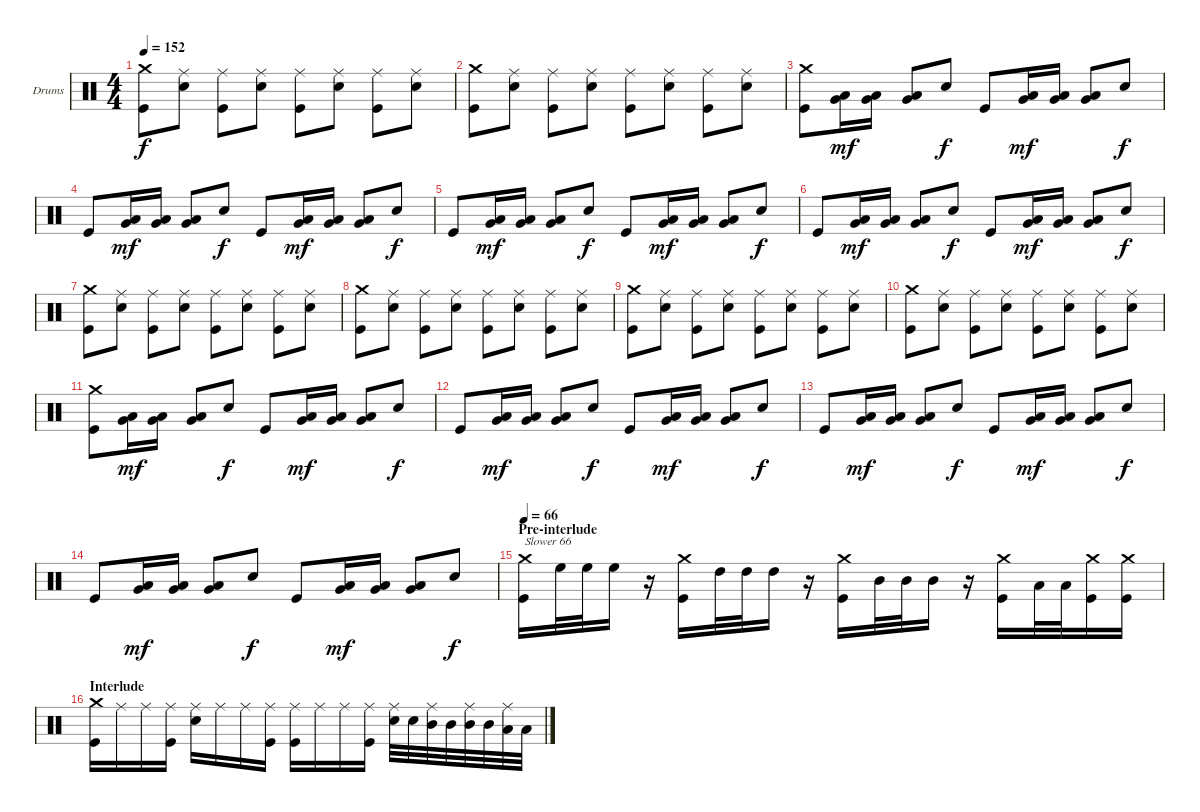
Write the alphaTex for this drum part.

\bracketExtendMode groupsimilarinstruments
\firstSystemTrackNameOrientation horizontal
\otherSystemsTrackNameOrientation horizontal
\track ("Drumkit" "Drums") {instrument percussion}
\staff {score}
\articulation defaults
\ts (4 4)
\tempo 152
\clef neutral
\ks c
("Crash medium (hit)" "Kick (hit)").8{dy f} ("Ride (middle)" "Snare (hit) 2").8 ("Ride (middle)" "Kick (hit)").8 ("Ride (middle)" "Snare (hit) 2").8 ("Ride (middle)" "Kick (hit)").8 ("Ride (middle)" "Snare (hit) 2").8 ("Ride (middle)" "Kick (hit)").8 ("Ride (middle)" "Snare (hit) 2").8 |
("Crash medium (hit)" "Kick (hit)").8 ("Ride (middle)" "Snare (hit) 2").8 ("Ride (middle)" "Kick (hit)").8 ("Ride (middle)" "Snare (hit) 2").8 ("Ride (middle)" "Kick (hit)").8 ("Ride (middle)" "Snare (hit) 2").8 ("Ride (middle)" "Kick (hit)").8 ("Ride (middle)" "Snare (hit) 2").8 |
("Crash medium (hit)" "Kick (hit)").8 ("Very Low Tom (hit)" "Low Tom (hit)").16{dy mf} ("Very Low Tom (hit)" "Low Tom (hit)").16 ("Very Low Tom (hit)" "Low Tom (hit)").8 "Snare (hit) 2".8{dy f} "Kick (hit)".8 ("Very Low Tom (hit)" "Low Tom (hit)").16{dy mf} ("Very Low Tom (hit)" "Low Tom (hit)").16 ("Very Low Tom (hit)" "Low Tom (hit)").8 "Snare (hit) 2".8{dy f} |
"Kick (hit)".8 ("Very Low Tom (hit)" "Low Tom (hit)").16{dy mf} ("Very Low Tom (hit)" "Low Tom (hit)").16 ("Very Low Tom (hit)" "Low Tom (hit)").8 "Snare (hit) 2".8{dy f} "Kick (hit)".8 ("Very Low Tom (hit)" "Low Tom (hit)").16{dy mf} ("Very Low Tom (hit)" "Low Tom (hit)").16 ("Very Low Tom (hit)" "Low Tom (hit)").8 "Snare (hit) 2".8{dy f} |
"Kick (hit)".8 ("Very Low Tom (hit)" "Low Tom (hit)").16{dy mf} ("Very Low Tom (hit)" "Low Tom (hit)").16 ("Very Low Tom (hit)" "Low Tom (hit)").8 "Snare (hit) 2".8{dy f} "Kick (hit)".8 ("Very Low Tom (hit)" "Low Tom (hit)").16{dy mf} ("Very Low Tom (hit)" "Low Tom (hit)").16 ("Very Low Tom (hit)" "Low Tom (hit)").8 "Snare (hit) 2".8{dy f} |
"Kick (hit)".8 ("Very Low Tom (hit)" "Low Tom (hit)").16{dy mf} ("Very Low Tom (hit)" "Low Tom (hit)").16 ("Very Low Tom (hit)" "Low Tom (hit)").8 "Snare (hit) 2".8{dy f} "Kick (hit)".8 ("Very Low Tom (hit)" "Low Tom (hit)").16{dy mf} ("Very Low Tom (hit)" "Low Tom (hit)").16 ("Very Low Tom (hit)" "Low Tom (hit)").8 "Snare (hit) 2".8{dy f} |
("Crash medium (hit)" "Kick (hit)").8 ("Ride (middle)" "Snare (hit) 2").8 ("Ride (middle)" "Kick (hit)").8 ("Ride (middle)" "Snare (hit) 2").8 ("Ride (middle)" "Kick (hit)").8 ("Ride (middle)" "Snare (hit) 2").8 ("Ride (middle)" "Kick (hit)").8 ("Ride (middle)" "Snare (hit) 2").8 |
("Crash medium (hit)" "Kick (hit)").8 ("Ride (middle)" "Snare (hit) 2").8 ("Ride (middle)" "Kick (hit)").8 ("Ride (middle)" "Snare (hit) 2").8 ("Ride (middle)" "Kick (hit)").8 ("Ride (middle)" "Snare (hit) 2").8 ("Ride (middle)" "Kick (hit)").8 ("Ride (middle)" "Snare (hit) 2").8 |
("Crash medium (hit)" "Kick (hit)").8 ("Ride (middle)" "Snare (hit) 2").8 ("Ride (middle)" "Kick (hit)").8 ("Ride (middle)" "Snare (hit) 2").8 ("Ride (middle)" "Kick (hit)").8 ("Ride (middle)" "Snare (hit) 2").8 ("Ride (middle)" "Kick (hit)").8 ("Ride (middle)" "Snare (hit) 2").8 |
("Crash medium (hit)" "Kick (hit)").8 ("Ride (middle)" "Snare (hit) 2").8 ("Ride (middle)" "Kick (hit)").8 ("Ride (middle)" "Snare (hit) 2").8 ("Ride (middle)" "Kick (hit)").8 ("Ride (middle)" "Snare (hit) 2").8 ("Ride (middle)" "Kick (hit)").8 ("Ride (middle)" "Snare (hit) 2").8 |
("Crash medium (hit)" "Kick (hit)").8 ("Very Low Tom (hit)" "Low Tom (hit)").16{dy mf} ("Very Low Tom (hit)" "Low Tom (hit)").16 ("Very Low Tom (hit)" "Low Tom (hit)").8 "Snare (hit) 2".8{dy f} "Kick (hit)".8 ("Very Low Tom (hit)" "Low Tom (hit)").16{dy mf} ("Very Low Tom (hit)" "Low Tom (hit)").16 ("Very Low Tom (hit)" "Low Tom (hit)").8 "Snare (hit) 2".8{dy f} |
"Kick (hit)".8 ("Very Low Tom (hit)" "Low Tom (hit)").16{dy mf} ("Very Low Tom (hit)" "Low Tom (hit)").16 ("Very Low Tom (hit)" "Low Tom (hit)").8 "Snare (hit) 2".8{dy f} "Kick (hit)".8 ("Very Low Tom (hit)" "Low Tom (hit)").16{dy mf} ("Very Low Tom (hit)" "Low Tom (hit)").16 ("Very Low Tom (hit)" "Low Tom (hit)").8 "Snare (hit) 2".8{dy f} |
"Kick (hit)".8 ("Very Low Tom (hit)" "Low Tom (hit)").16{dy mf} ("Very Low Tom (hit)" "Low Tom (hit)").16 ("Very Low Tom (hit)" "Low Tom (hit)").8 "Snare (hit) 2".8{dy f} "Kick (hit)".8 ("Very Low Tom (hit)" "Low Tom (hit)").16{dy mf} ("Very Low Tom (hit)" "Low Tom (hit)").16 ("Very Low Tom (hit)" "Low Tom (hit)").8 "Snare (hit) 2".8{dy f} |
"Kick (hit)".8 ("Very Low Tom (hit)" "Low Tom (hit)").16{dy mf} ("Very Low Tom (hit)" "Low Tom (hit)").16 ("Very Low Tom (hit)" "Low Tom (hit)").8 "Snare (hit) 2".8{dy f} "Kick (hit)".8 ("Very Low Tom (hit)" "Low Tom (hit)").16{dy mf} ("Very Low Tom (hit)" "Low Tom (hit)").16 ("Very Low Tom (hit)" "Low Tom (hit)").8 "Snare (hit) 2".8{dy f} |
\section ("" "Pre-interlude")
\tempo 66
("Crash medium (hit)" "Kick (hit)").16{txt "Slower 66"} "High Floor Tom (hit)".32 "High Floor Tom (hit)".32 "High Floor Tom (hit)".16 r.16 ("Crash medium (hit)" "Kick (hit)").16 "High Tom (hit)".32 "High Tom (hit)".32 "High Tom (hit)".16 r.16 ("Crash medium (hit)" "Kick (hit)").16 "Mid Tom (hit)".32 "Mid Tom (hit)".32 "Mid Tom (hit)".16 r.16 ("Crash medium (hit)" "Kick (hit)").16 "Low Tom (hit)".32 "Low Tom (hit)".32 ("Crash medium (hit)" "Kick (hit)").16 ("Crash medium (hit)" "Kick (hit)").16 |
\section ("" "Interlude")
("Crash medium (hit)" "Kick (hit)").16 "Ride (middle)".16 "Ride (middle)".16 ("Ride (middle)" "Kick (hit)").16 ("Ride (middle)" "Snare (hit) 2").16 "Ride (middle)".16 "Ride (middle)".16 ("Ride (middle)" "Kick (hit)").16 ("Ride (middle)" "Kick (hit)").16 "Ride (middle)".16 "Ride (middle)".16 ("Ride (middle)" "Kick (hit)").16 ("Ride (middle)" "Snare (hit) 2").32 "Snare (hit) 2".32 ("Ride (middle)" "Mid Tom (hit)").32 "Mid Tom (hit)".32 ("Ride (middle)" "Mid Tom (hit)").32 "Mid Tom (hit)".32 ("Ride (middle)" "Low Tom (hit)").32 "Low Tom (hit)".32
